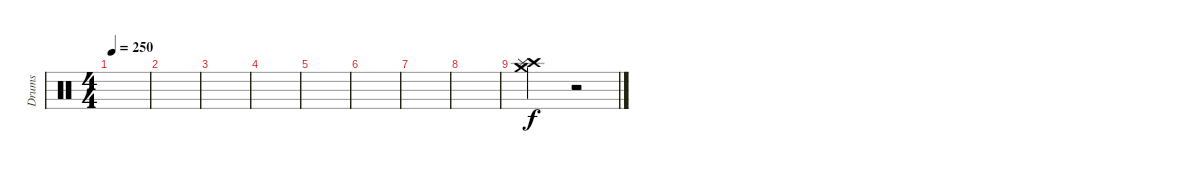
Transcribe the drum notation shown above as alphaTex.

\track ("Drums" "Drums") {instrument percussion}
\staff {score}
\articulation defaults
\ts (4 4)
\tempo 250
\clef neutral
\ks c
|
|
|
|
|
|
|
|
("Crash medium (hit)" "Crash high (hit)" "Splash (hit)").2 r.2
